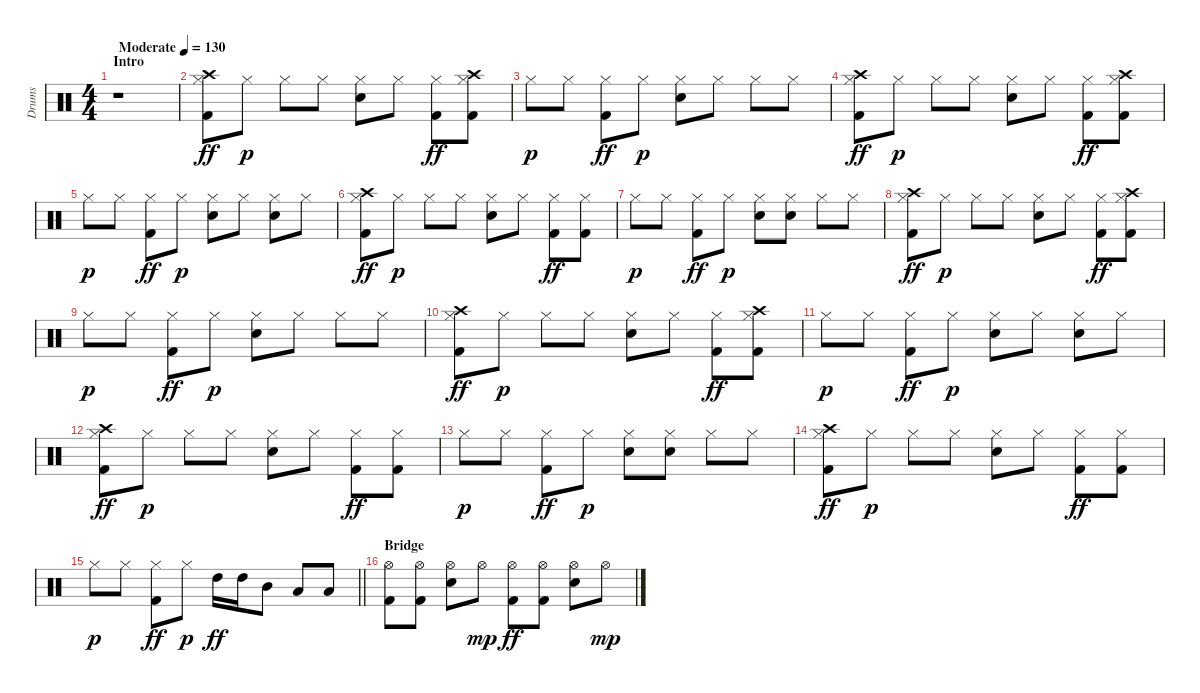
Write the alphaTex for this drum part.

\track ("Drums" "Drums") {instrument percussion}
\staff
\articulation defaults
\ts (4 4)
\section ("" "Intro")
\tempo (130 "Moderate")
\clef neutral
\ks c
r.1{dy ff} |
("Crash high (hit)" "Hi-Hat (closed)" "Kick (hit) 2").8 "Hi-Hat (closed)".8{dy p} "Hi-Hat (closed)".8 "Hi-Hat (closed)".8 ("Hi-Hat (closed)" "Snare (hit) 2").8 "Hi-Hat (closed)".8 ("Hi-Hat (closed)" "Kick (hit) 2").8{dy ff} ("Crash high (hit)" "Hi-Hat (closed)" "Kick (hit) 2").8 |
"Hi-Hat (closed)".8{dy p} "Hi-Hat (closed)".8 ("Hi-Hat (closed)" "Kick (hit) 2").8{dy ff} "Hi-Hat (closed)".8{dy p} ("Hi-Hat (closed)" "Snare (hit) 2").8 "Hi-Hat (closed)".8 "Hi-Hat (closed)".8 "Hi-Hat (closed)".8 |
("Crash high (hit)" "Hi-Hat (closed)" "Kick (hit) 2").8{dy ff} "Hi-Hat (closed)".8{dy p} "Hi-Hat (closed)".8 "Hi-Hat (closed)".8 ("Hi-Hat (closed)" "Snare (hit) 2").8 "Hi-Hat (closed)".8 ("Hi-Hat (closed)" "Kick (hit) 2").8{dy ff} ("Crash high (hit)" "Hi-Hat (closed)" "Kick (hit) 2").8 |
"Hi-Hat (closed)".8{dy p} "Hi-Hat (closed)".8 ("Hi-Hat (closed)" "Kick (hit) 2").8{dy ff} "Hi-Hat (closed)".8{dy p} ("Hi-Hat (closed)" "Snare (hit) 2").8 "Hi-Hat (closed)".8 ("Hi-Hat (closed)" "Snare (hit) 2").8 "Hi-Hat (closed)".8 |
("Crash high (hit)" "Hi-Hat (closed)" "Kick (hit) 2").8{dy ff} "Hi-Hat (closed)".8{dy p} "Hi-Hat (closed)".8 "Hi-Hat (closed)".8 ("Hi-Hat (closed)" "Snare (hit) 2").8 "Hi-Hat (closed)".8 ("Hi-Hat (closed)" "Kick (hit) 2").8{dy ff} ("Hi-Hat (closed)" "Kick (hit) 2").8 |
"Hi-Hat (closed)".8{dy p} "Hi-Hat (closed)".8 ("Hi-Hat (closed)" "Kick (hit) 2").8{dy ff} "Hi-Hat (closed)".8{dy p} ("Hi-Hat (closed)" "Snare (hit) 2").8 ("Hi-Hat (closed)" "Snare (hit) 2").8 "Hi-Hat (closed)".8 "Hi-Hat (closed)".8 |
("Crash high (hit)" "Hi-Hat (closed)" "Kick (hit) 2").8{dy ff} "Hi-Hat (closed)".8{dy p} "Hi-Hat (closed)".8 "Hi-Hat (closed)".8 ("Hi-Hat (closed)" "Snare (hit) 2").8 "Hi-Hat (closed)".8 ("Hi-Hat (closed)" "Kick (hit) 2").8{dy ff} ("Crash high (hit)" "Hi-Hat (closed)" "Kick (hit) 2").8 |
"Hi-Hat (closed)".8{dy p} "Hi-Hat (closed)".8 ("Hi-Hat (closed)" "Kick (hit) 2").8{dy ff} "Hi-Hat (closed)".8{dy p} ("Hi-Hat (closed)" "Snare (hit) 2").8 "Hi-Hat (closed)".8 "Hi-Hat (closed)".8 "Hi-Hat (closed)".8 |
("Crash high (hit)" "Hi-Hat (closed)" "Kick (hit) 2").8{dy ff} "Hi-Hat (closed)".8{dy p} "Hi-Hat (closed)".8 "Hi-Hat (closed)".8 ("Hi-Hat (closed)" "Snare (hit) 2").8 "Hi-Hat (closed)".8 ("Hi-Hat (closed)" "Kick (hit) 2").8{dy ff} ("Crash high (hit)" "Hi-Hat (closed)" "Kick (hit) 2").8 |
"Hi-Hat (closed)".8{dy p} "Hi-Hat (closed)".8 ("Hi-Hat (closed)" "Kick (hit) 2").8{dy ff} "Hi-Hat (closed)".8{dy p} ("Hi-Hat (closed)" "Snare (hit) 2").8 "Hi-Hat (closed)".8 ("Hi-Hat (closed)" "Snare (hit) 2").8 "Hi-Hat (closed)".8 |
("Crash high (hit)" "Hi-Hat (closed)" "Kick (hit) 2").8{dy ff} "Hi-Hat (closed)".8{dy p} "Hi-Hat (closed)".8 "Hi-Hat (closed)".8 ("Hi-Hat (closed)" "Snare (hit) 2").8 "Hi-Hat (closed)".8 ("Hi-Hat (closed)" "Kick (hit) 2").8{dy ff} ("Hi-Hat (closed)" "Kick (hit) 2").8 |
"Hi-Hat (closed)".8{dy p} "Hi-Hat (closed)".8 ("Hi-Hat (closed)" "Kick (hit) 2").8{dy ff} "Hi-Hat (closed)".8{dy p} ("Hi-Hat (closed)" "Snare (hit) 2").8 ("Hi-Hat (closed)" "Snare (hit) 2").8 "Hi-Hat (closed)".8 "Hi-Hat (closed)".8 |
("Crash high (hit)" "Hi-Hat (closed)" "Kick (hit) 2").8{dy ff} "Hi-Hat (closed)".8{dy p} "Hi-Hat (closed)".8 "Hi-Hat (closed)".8 ("Hi-Hat (closed)" "Snare (hit) 2").8 "Hi-Hat (closed)".8 ("Hi-Hat (closed)" "Kick (hit) 2").8{dy ff} ("Hi-Hat (closed)" "Kick (hit) 2").8 |
\barLineRight lightlight "Hi-Hat (closed)".8{dy p} "Hi-Hat (closed)".8
("Hi-Hat (closed)" "Kick (hit) 2").8{dy ff} "Hi-Hat (closed)".8{dy p} "High Tom (hit)".16{dy ff} "High Tom (hit)".16 "Mid Tom (hit)".8 "Low Tom (hit)".8 "Low Tom (hit)".8 |
\section ("" "Bridge")
("Hi-Hat (open)" "Kick (hit) 2").8 ("Hi-Hat (open)" "Kick (hit) 2").8 ("Hi-Hat (open)" "Snare (hit) 2").8 "Hi-Hat (open)".8{dy mp} ("Hi-Hat (open)" "Kick (hit) 2").8{dy ff} ("Hi-Hat (open)" "Kick (hit) 2").8 ("Hi-Hat (open)" "Snare (hit) 2").8 "Hi-Hat (open)".8{dy mp}
